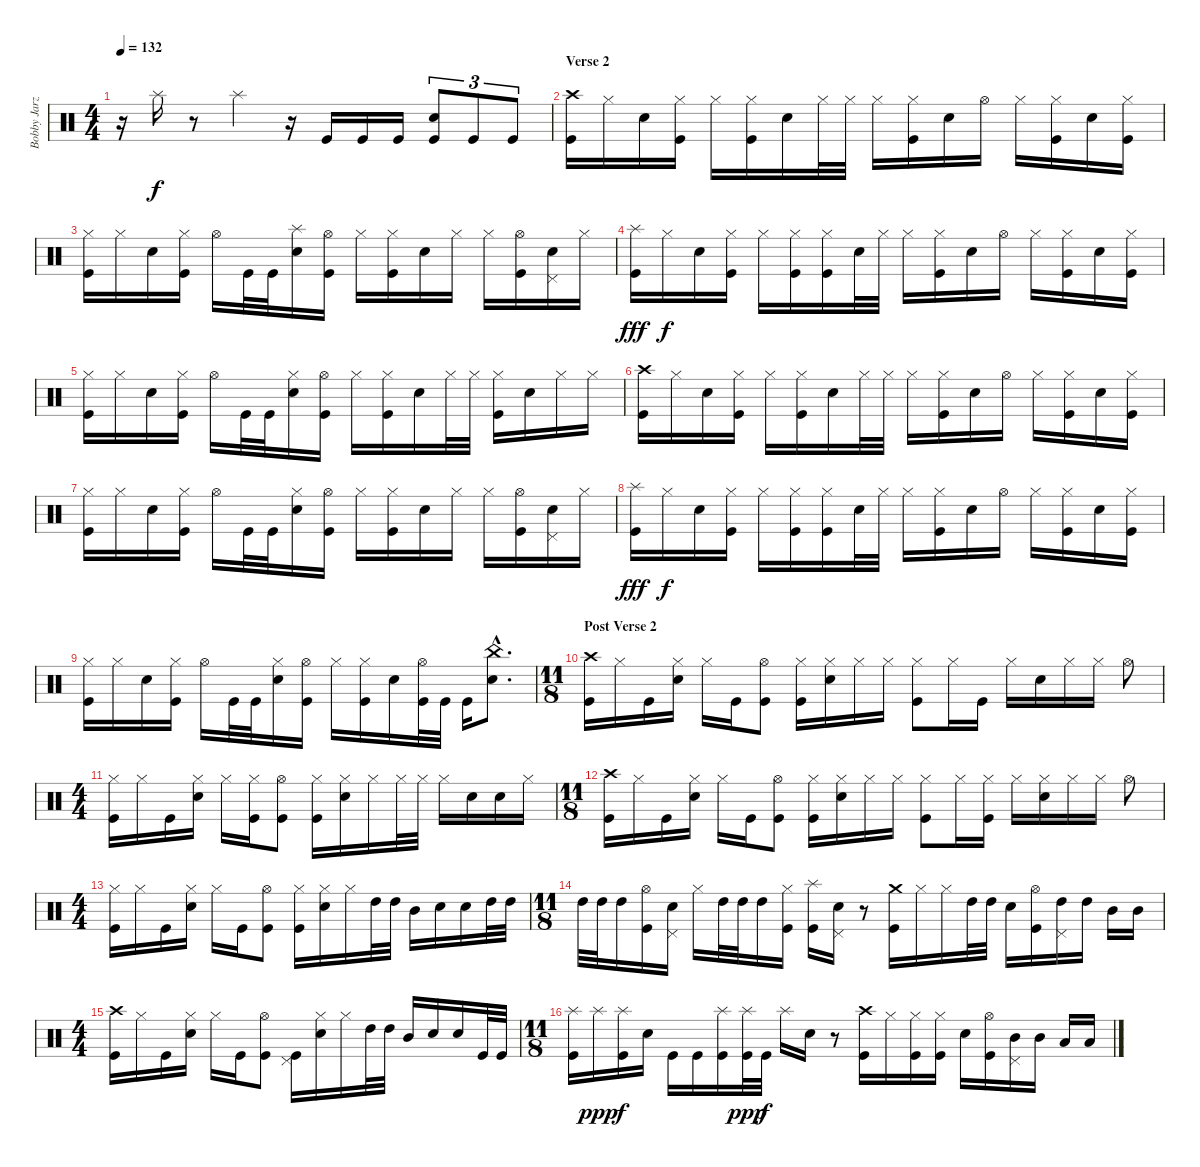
\track ("Bobby Jarzombek" "Bobby Jarz") {instrument percussion}
\staff {score}
\articulation defaults
\ts (4 4)
\tempo 132
\clef neutral
\ks c
r.16{dy f} "Splash (hit)".16 r.8 "Splash (hit)".4 r.16 "Kick (hit)".16 "Kick (hit)".16 "Kick (hit)".16 ("Electric Snare (hit)" "Kick (hit)").8{tu (3 2)} "Kick (hit)".8{tu (3 2)} "Kick (hit)".8{tu (3 2)} |
\section ("" "Verse 2")
("Crash high (hit)" "Kick (hit)").16 "Hi-Hat (closed)".16 "Electric Snare (hit)".16 ("Hi-Hat (closed)" "Kick (hit)").16 "Hi-Hat (closed)".16 ("Hi-Hat (closed)" "Kick (hit)").16 "Electric Snare (hit)".16 "Hi-Hat (closed)".32 "Hi-Hat (closed)".32 "Hi-Hat (closed)".16 ("Hi-Hat (closed)" "Kick (hit)").16 "Electric Snare (hit)".16 "Hi-Hat (open)".16 "Hi-Hat (closed)".16 ("Hi-Hat (closed)" "Kick (hit)").16 "Electric Snare (hit)".16 ("Hi-Hat (closed)" "Kick (hit)").16 |
("Hi-Hat (closed)" "Kick (hit)").16 "Hi-Hat (closed)".16 "Electric Snare (hit)".16 ("Hi-Hat (closed)" "Kick (hit)").16 "Hi-Hat (open)".16 "Kick (hit)".32 "Kick (hit)".32 ("Splash (hit)" "Electric Snare (hit)").16 ("Hi-Hat (open)" "Kick (hit)").16 "Hi-Hat (closed)".16 ("Hi-Hat (closed)" "Kick (hit)").16 "Electric Snare (hit)".16 "Hi-Hat (closed)".16 "Hi-Hat (closed)".16 ("Hi-Hat (open)" "Kick (hit)").16 ("Electric Snare (hit)" "Pedal Hi-Hat (hit)").16 "Hi-Hat (closed)".16 |
("Splash (hit)" "Kick (hit)").16{dy fff} "Hi-Hat (closed)".16{dy f} "Electric Snare (hit)".16 ("Hi-Hat (closed)" "Kick (hit)").16 "Hi-Hat (closed)".16 ("Hi-Hat (closed)" "Kick (hit)").16 ("Hi-Hat (closed)" "Kick (hit)").16 "Electric Snare (hit)".32 "Hi-Hat (closed)".32 "Hi-Hat (closed)".16 ("Hi-Hat (closed)" "Kick (hit)").16 "Electric Snare (hit)".16 "Hi-Hat (open)".16 "Hi-Hat (closed)".16 ("Hi-Hat (closed)" "Kick (hit)").16 "Electric Snare (hit)".16 ("Hi-Hat (closed)" "Kick (hit)").16 |
("Hi-Hat (closed)" "Kick (hit)").16 "Hi-Hat (closed)".16 "Electric Snare (hit)".16 ("Hi-Hat (closed)" "Kick (hit)").16 "Hi-Hat (open)".16 "Kick (hit)".32 "Kick (hit)".32 ("Hi-Hat (closed)" "Electric Snare (hit)").16 ("Hi-Hat (open)" "Kick (hit)").16 "Hi-Hat (closed)".16 ("Hi-Hat (closed)" "Kick (hit)").16 "Electric Snare (hit)".16 "Hi-Hat (closed)".32 "Hi-Hat (closed)".32 ("Hi-Hat (closed)" "Kick (hit)").16 "Electric Snare (hit)".16 "Hi-Hat (closed)".16 "Hi-Hat (closed)".16 |
("Crash high (hit)" "Kick (hit)").16 "Hi-Hat (closed)".16 "Electric Snare (hit)".16 ("Hi-Hat (closed)" "Kick (hit)").16 "Hi-Hat (closed)".16 ("Hi-Hat (closed)" "Kick (hit)").16 "Electric Snare (hit)".16 "Hi-Hat (closed)".32 "Hi-Hat (closed)".32 "Hi-Hat (closed)".16 ("Hi-Hat (closed)" "Kick (hit)").16 "Electric Snare (hit)".16 "Hi-Hat (open)".16 "Hi-Hat (closed)".16 ("Hi-Hat (closed)" "Kick (hit)").16 "Electric Snare (hit)".16 ("Hi-Hat (closed)" "Kick (hit)").16 |
("Hi-Hat (closed)" "Kick (hit)").16 "Hi-Hat (closed)".16 "Electric Snare (hit)".16 ("Hi-Hat (closed)" "Kick (hit)").16 "Hi-Hat (open)".16 "Kick (hit)".32 "Kick (hit)".32 ("Hi-Hat (closed)" "Electric Snare (hit)").16 ("Hi-Hat (open)" "Kick (hit)").16 "Hi-Hat (closed)".16 ("Hi-Hat (closed)" "Kick (hit)").16 "Electric Snare (hit)".16 "Hi-Hat (closed)".16 "Hi-Hat (closed)".16 ("Hi-Hat (open)" "Kick (hit)").16 ("Electric Snare (hit)" "Pedal Hi-Hat (hit)").16 "Hi-Hat (closed)".16 |
("Splash (hit)" "Kick (hit)").16{dy fff} "Hi-Hat (closed)".16{dy f} "Electric Snare (hit)".16 ("Hi-Hat (closed)" "Kick (hit)").16 "Hi-Hat (closed)".16 ("Hi-Hat (closed)" "Kick (hit)").16 ("Hi-Hat (closed)" "Kick (hit)").16 "Electric Snare (hit)".32 "Hi-Hat (closed)".32 "Hi-Hat (closed)".16 ("Hi-Hat (closed)" "Kick (hit)").16 "Electric Snare (hit)".16 "Hi-Hat (open)".16 "Hi-Hat (closed)".16 ("Hi-Hat (closed)" "Kick (hit)").16 "Electric Snare (hit)".16 ("Hi-Hat (closed)" "Kick (hit)").16 |
("Hi-Hat (closed)" "Kick (hit)").16 "Hi-Hat (closed)".16 "Electric Snare (hit)".16 ("Hi-Hat (closed)" "Kick (hit)").16 "Hi-Hat (open)".16 "Kick (hit)".32 "Kick (hit)".32 ("Hi-Hat (closed)" "Electric Snare (hit)").16 ("Hi-Hat (open)" "Kick (hit)").16 "Hi-Hat (closed)".16 ("Hi-Hat (closed)" "Kick (hit)").16 "Electric Snare (hit)".16 ("Hi-Hat (open)" "Kick (hit)").32 "Kick (hit)".32 "Kick (hit)".16 ("China (hit)"{hac} "Electric Snare (hit)"{hac}).8{d} |
\ts (11 8)
\section ("" "Post Verse 2")
("Crash high (hit)" "Kick (hit)").16 "Hi-Hat (closed)".16 "Kick (hit)".16 ("Hi-Hat (closed)" "Electric Snare (hit)").16 "Hi-Hat (closed)".16 "Kick (hit)".16 ("Hi-Hat (open)" "Kick (hit)").8 ("Hi-Hat (closed)" "Kick (hit)").16 ("Hi-Hat (closed)" "Electric Snare (hit)").16 "Hi-Hat (closed)".16 "Hi-Hat (closed)".16 ("Hi-Hat (closed)" "Kick (hit)").8 "Hi-Hat (closed)".16 "Kick (hit)".16 "Hi-Hat (closed)".16 "Electric Snare (hit)".16 "Hi-Hat (closed)".16 "Hi-Hat (closed)".16 "Hi-Hat (open)".8 |
\ts (4 4)
("Hi-Hat (closed)" "Kick (hit)").16 "Hi-Hat (closed)".16 "Kick (hit)".16 ("Hi-Hat (closed)" "Electric Snare (hit)").16 "Hi-Hat (closed)".16 ("Hi-Hat (closed)" "Kick (hit)").16 ("Hi-Hat (open)" "Kick (hit)").8 ("Hi-Hat (closed)" "Kick (hit)").16 ("Hi-Hat (closed)" "Electric Snare (hit)").16 "Hi-Hat (closed)".16 "Hi-Hat (closed)".32 "Hi-Hat (closed)".32 "Hi-Hat (closed)".16 "Electric Snare (hit)".16 "Electric Snare (hit)".16 "Hi-Hat (closed)".16 |
\ts (11 8)
("Crash high (hit)" "Kick (hit)").16 "Hi-Hat (closed)".16 "Kick (hit)".16 ("Hi-Hat (closed)" "Electric Snare (hit)").16 "Hi-Hat (closed)".16 "Kick (hit)".16 ("Hi-Hat (open)" "Kick (hit)").8 ("Hi-Hat (closed)" "Kick (hit)").16 ("Hi-Hat (closed)" "Electric Snare (hit)").16 "Hi-Hat (closed)".16 "Hi-Hat (closed)".16 ("Hi-Hat (closed)" "Kick (hit)").8 "Hi-Hat (closed)".16 ("Hi-Hat (closed)" "Kick (hit)").16 "Hi-Hat (closed)".16 ("Hi-Hat (closed)" "Electric Snare (hit)").16 "Hi-Hat (closed)".16 "Hi-Hat (closed)".16 "Hi-Hat (open)".8 |
\ts (4 4)
("Hi-Hat (closed)" "Kick (hit)").16 "Hi-Hat (closed)".16 "Kick (hit)".16 ("Hi-Hat (closed)" "Electric Snare (hit)").16 "Hi-Hat (closed)".16 "Kick (hit)".16 ("Hi-Hat (open)" "Kick (hit)").8 ("Hi-Hat (closed)" "Kick (hit)").16 ("Hi-Hat (closed)" "Electric Snare (hit)").16 "Hi-Hat (closed)".16 "High Tom (hit)".32 "High Tom (hit)".32 "Mid Tom (hit)".16 "Electric Snare (hit)".16 "Electric Snare (hit)".16 "High Tom (hit)".32 "High Tom (hit)".32 |
\ts (11 8)
"High Tom (hit)".32 "High Tom (hit)".32 "High Tom (hit)".16 ("Hi-Hat (open)" "Kick (hit)").16 ("Electric Snare (hit)" "Pedal Hi-Hat (hit)").16 "Hi-Hat (closed)".16 "High Tom (hit)".32 "High Tom (hit)".32 "High Tom (hit)".16 ("Hi-Hat (closed)" "Kick (hit)").16 ("Splash (hit)" "Kick (hit)").16 ("Electric Snare (hit)" "Pedal Hi-Hat (hit)").16 r.8 ("Crash medium (hit)" "Kick (hit)").16 "Hi-Hat (closed)".16 "Hi-Hat (closed)".16 "High Tom (hit)".32 "High Tom (hit)".32 "Electric Snare (hit)".16 ("Hi-Hat (open)" "Kick (hit)").16 ("High Tom (hit)" "Pedal Hi-Hat (hit)").16 "High Tom (hit)".16 "Mid Tom (hit)".16 "Mid Tom (hit)".16 |
\ts (4 4)
("Crash high (hit)" "Kick (hit)").16 "Hi-Hat (closed)".16 "Kick (hit)".16 ("Hi-Hat (closed)" "Electric Snare (hit)").16 "Hi-Hat (closed)".16 "Kick (hit)".16 ("Hi-Hat (open)" "Kick (hit)").8 ("Pedal Hi-Hat (hit)" "Kick (hit)").16 ("Hi-Hat (closed)" "Electric Snare (hit)").16 "Hi-Hat (closed)".16 "High Tom (hit)".32 "High Tom (hit)".32 "Mid Tom (hit)".16 "Electric Snare (hit)".16 "Electric Snare (hit)".16 "Kick (hit)".32 "Kick (hit)".32 |
\ts (11 8)
("Splash (hit)" "Kick (hit)").16 "Splash (hit)".16{dy ppp} ("Splash (hit)" "Kick (hit)").16{dy f} "Electric Snare (hit)".16 "Kick (hit)".16 "Kick (hit)".16 ("Splash (hit)" "Kick (hit)").16 ("Splash (hit)" "Kick (hit)").32{dy ppp} "Kick (hit)".32{dy f} "Splash (hit)".16 "Electric Snare (hit)".16 r.8 ("Crash high (hit)" "Kick (hit)").16 "Hi-Hat (closed)".16 ("Hi-Hat (closed)" "Kick (hit)").16 ("Hi-Hat (closed)" "Kick (hit)").16 "Electric Snare (hit)".16 ("Hi-Hat (open)" "Kick (hit)").16 ("Mid Tom (hit)" "Pedal Hi-Hat (hit)").16 "Mid Tom (hit)".16 "Low Tom (hit)".16 "Low Tom (hit)".16
